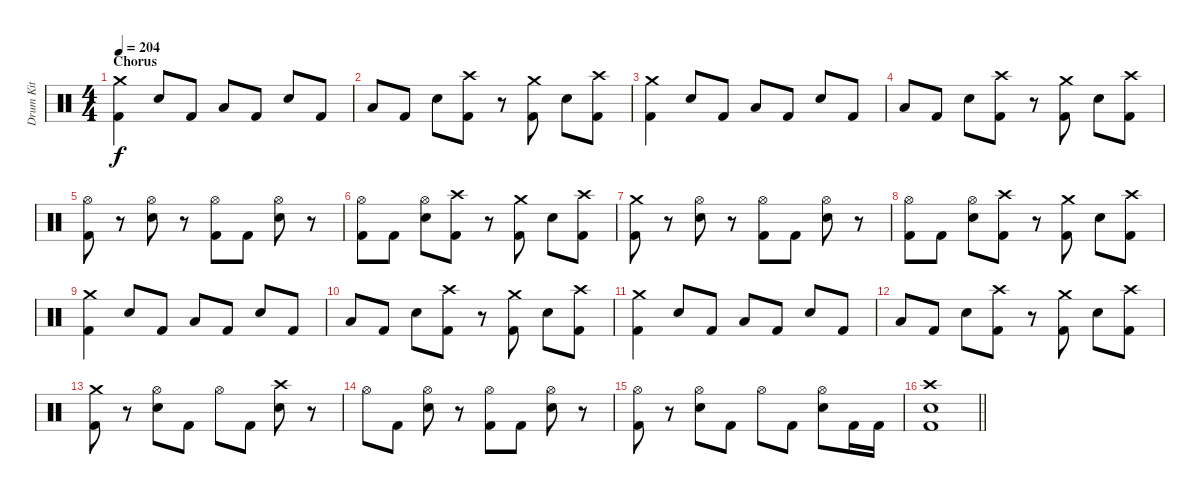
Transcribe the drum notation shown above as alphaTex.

\track ("Drum Kit" "Drum Kit") {instrument percussion}
\staff {score}
\articulation defaults
\ts (4 4)
\section ("" "Chorus")
\tempo 204
\clef neutral
\ks c
("Crash medium (hit)" "Kick (hit) 2").4{dy f} "Snare (hit) 2".8 "Kick (hit) 2".8 "Low Floor Tom (hit)".8 "Kick (hit) 2".8 "Snare (hit) 2".8 "Kick (hit) 2".8 |
"Low Floor Tom (hit)".8 "Kick (hit) 2".8 "Snare (hit) 2".8 ("Crash high (hit)" "Kick (hit) 2").8 r.8 ("Crash medium (hit)" "Kick (hit) 2").8 "Snare (hit) 2".8 ("Crash high (hit)" "Kick (hit) 2").8 |
("Crash medium (hit)" "Kick (hit) 2").4 "Snare (hit) 2".8 "Kick (hit) 2".8 "Low Floor Tom (hit)".8 "Kick (hit) 2".8 "Snare (hit) 2".8 "Kick (hit) 2".8 |
"Low Floor Tom (hit)".8 "Kick (hit) 2".8 "Snare (hit) 2".8 ("Crash high (hit)" "Kick (hit) 2").8 r.8 ("Crash medium (hit)" "Kick (hit) 2").8 "Snare (hit) 2".8 ("Crash high (hit)" "Kick (hit) 2").8 |
("Hi-Hat (open)" "Kick (hit) 2").8 r.8 ("Hi-Hat (open)" "Snare (hit) 2").8 r.8 ("Hi-Hat (open)" "Kick (hit) 2").8 "Kick (hit) 2".8 ("Hi-Hat (open)" "Snare (hit) 2").8 r.8 |
("Hi-Hat (open)" "Kick (hit) 2").8 "Kick (hit) 2".8 ("Hi-Hat (open)" "Snare (hit) 2").8 ("Crash high (hit)" "Kick (hit) 2").8 r.8 ("Crash medium (hit)" "Kick (hit) 2").8 "Snare (hit) 2".8 ("Crash high (hit)" "Kick (hit) 2").8 |
("Crash medium (hit)" "Kick (hit) 2").8 r.8 ("Hi-Hat (open)" "Snare (hit) 2").8 r.8 ("Hi-Hat (open)" "Kick (hit) 2").8 "Kick (hit) 2".8 ("Hi-Hat (open)" "Snare (hit) 2").8 r.8 |
("Hi-Hat (open)" "Kick (hit) 2").8 "Kick (hit) 2".8 ("Hi-Hat (open)" "Snare (hit) 2").8 ("Crash high (hit)" "Kick (hit) 2").8 r.8 ("Crash medium (hit)" "Kick (hit) 2").8 "Snare (hit) 2".8 ("Crash high (hit)" "Kick (hit) 2").8 |
("Crash medium (hit)" "Kick (hit) 2").4 "Snare (hit) 2".8 "Kick (hit) 2".8 "Low Floor Tom (hit)".8 "Kick (hit) 2".8 "Snare (hit) 2".8 "Kick (hit) 2".8 |
"Low Floor Tom (hit)".8 "Kick (hit) 2".8 "Snare (hit) 2".8 ("Crash high (hit)" "Kick (hit) 2").8 r.8 ("Crash medium (hit)" "Kick (hit) 2").8 "Snare (hit) 2".8 ("Crash high (hit)" "Kick (hit) 2").8 |
("Crash medium (hit)" "Kick (hit) 2").4 "Snare (hit) 2".8 "Kick (hit) 2".8 "Low Floor Tom (hit)".8 "Kick (hit) 2".8 "Snare (hit) 2".8 "Kick (hit) 2".8 |
"Low Floor Tom (hit)".8 "Kick (hit) 2".8 "Snare (hit) 2".8 ("Crash high (hit)" "Kick (hit) 2").8 r.8 ("Crash medium (hit)" "Kick (hit) 2").8 "Snare (hit) 2".8 ("Crash high (hit)" "Kick (hit) 2").8 |
("Crash medium (hit)" "Kick (hit) 2").8 r.8 ("Hi-Hat (open)" "Snare (hit) 2").8 "Kick (hit) 2".8 "Hi-Hat (open)".8 "Kick (hit) 2".8 ("Crash high (hit)" "Snare (hit) 2").8 r.8 |
"Hi-Hat (open)".8 "Kick (hit) 2".8 ("Hi-Hat (open)" "Snare (hit) 2").8 r.8 ("Hi-Hat (open)" "Kick (hit) 2").8 "Kick (hit) 2".8 ("Hi-Hat (open)" "Snare (hit) 2").8 r.8 |
("Hi-Hat (open)" "Kick (hit) 2").8 r.8 ("Hi-Hat (open)" "Snare (hit) 2").8 "Kick (hit) 2".8 "Hi-Hat (open)".8 "Kick (hit) 2".8 ("Hi-Hat (open)" "Snare (hit) 2").8 "Kick (hit) 2".16 "Kick (hit) 2".16 |
\barLineRight lightlight
("Crash high (hit)" "Snare (hit) 2" "Kick (hit) 2").1
